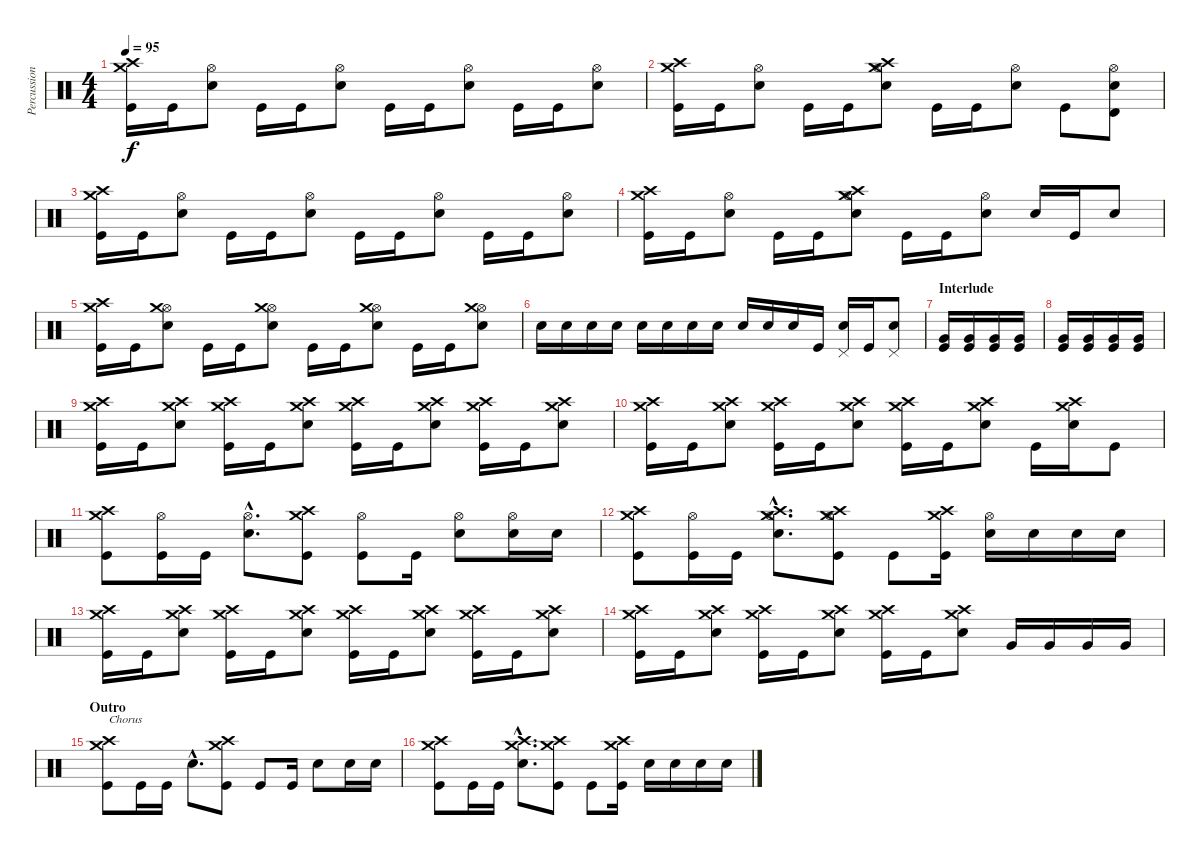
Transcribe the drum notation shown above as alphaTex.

\track ("Percussion" "Percussion") {instrument percussion}
\staff {score}
\articulation defaults
\ts (4 4)
\tempo 95
\clef neutral
\ks c
("Crash medium (hit)" "Crash high (hit)" "Kick (hit)").16{dy f} "Kick (hit)".16 ("Hi-Hat (open)" "Electric Snare (hit)").8 "Kick (hit)".16 "Kick (hit)".16 ("Hi-Hat (open)" "Electric Snare (hit)").8 "Kick (hit)".16 "Kick (hit)".16 ("Hi-Hat (open)" "Electric Snare (hit)").8 "Kick (hit)".16 "Kick (hit)".16 ("Electric Snare (hit)" "Hi-Hat (open)").8 |
("Crash medium (hit)" "Crash high (hit)" "Kick (hit)").16 "Kick (hit)".16 ("Hi-Hat (open)" "Electric Snare (hit)").8 "Kick (hit)".16 "Kick (hit)".16 ("Hi-Hat (open)" "Electric Snare (hit)" "Crash medium (hit)" "Crash high (hit)").8 "Kick (hit)".16 "Kick (hit)".16 ("Hi-Hat (open)" "Electric Snare (hit)").8 "Kick (hit)".8 ("Electric Snare (hit)" "Hi-Hat (open)" "Timbale high (hit)").8 |
("Crash medium (hit)" "Crash high (hit)" "Kick (hit)").16 "Kick (hit)".16 ("Hi-Hat (open)" "Electric Snare (hit)").8 "Kick (hit)".16 "Kick (hit)".16 ("Hi-Hat (open)" "Electric Snare (hit)").8 "Kick (hit)".16 "Kick (hit)".16 ("Hi-Hat (open)" "Electric Snare (hit)").8 "Kick (hit)".16 "Kick (hit)".16 ("Electric Snare (hit)" "Hi-Hat (open)").8 |
("Crash medium (hit)" "Crash high (hit)" "Kick (hit)").16 "Kick (hit)".16 ("Hi-Hat (open)" "Electric Snare (hit)").8 "Kick (hit)".16 "Kick (hit)".16 ("Hi-Hat (open)" "Electric Snare (hit)" "Crash medium (hit)" "Crash high (hit)").8 "Kick (hit)".16 "Kick (hit)".16 ("Hi-Hat (open)" "Electric Snare (hit)").8 "Electric Snare (hit)".16 "Kick (hit)".16 "Electric Snare (hit)".8 |
("Crash medium (hit)" "Crash high (hit)" "Kick (hit)").16 "Kick (hit)".16 ("Hi-Hat (open)" "Electric Snare (hit)" "Crash medium (hit)").8 "Kick (hit)".16 "Kick (hit)".16 ("Hi-Hat (open)" "Electric Snare (hit)" "Crash medium (hit)").8 "Kick (hit)".16 "Kick (hit)".16 ("Hi-Hat (open)" "Electric Snare (hit)" "Crash medium (hit)").8 "Kick (hit)".16 "Kick (hit)".16 ("Electric Snare (hit)" "Hi-Hat (open)" "Crash medium (hit)").8{volume 0} |
"Electric Snare (hit)".16{volume 16} "Electric Snare (hit)".16 "Electric Snare (hit)".16 "Electric Snare (hit)".16 "Electric Snare (hit)".16 "Electric Snare (hit)".16 "Electric Snare (hit)".16 "Electric Snare (hit)".16 "Electric Snare (hit)".16 "Electric Snare (hit)".16 "Electric Snare (hit)".16 "Kick (hit)".16 ("Pedal Hi-Hat (hit)" "Electric Snare (hit)").16 "Kick (hit)".16 ("Pedal Hi-Hat (hit)" "Electric Snare (hit)").8 |
\section ("" "Interlude")
("Very Low Tom (hit)" "Kick (hit)").16 ("Very Low Tom (hit)" "Kick (hit)").16 ("Very Low Tom (hit)" "Kick (hit)").16 ("Very Low Tom (hit)" "Kick (hit)").16 |
("Very Low Tom (hit)" "Kick (hit)").16 ("Very Low Tom (hit)" "Kick (hit)").16 ("Very Low Tom (hit)" "Kick (hit)").16 ("Very Low Tom (hit)" "Kick (hit)").16 |
("Crash medium (hit)" "Crash high (hit)" "Kick (hit)").16 "Kick (hit)".16 ("Crash high (hit)" "Electric Snare (hit)" "Crash medium (hit)").8 ("Crash high (hit)" "Crash medium (hit)" "Kick (hit)").16 "Kick (hit)".16 ("Crash high (hit)" "Electric Snare (hit)" "Crash medium (hit)").8 ("Crash high (hit)" "Crash medium (hit)" "Kick (hit)").16 "Kick (hit)".16 ("Crash high (hit)" "Electric Snare (hit)" "Crash medium (hit)").8 ("Crash high (hit)" "Crash medium (hit)" "Kick (hit)").16 "Kick (hit)".16 ("Electric Snare (hit)" "Crash medium (hit)" "Crash high (hit)").8 |
("Crash medium (hit)" "Crash high (hit)" "Kick (hit)").16 "Kick (hit)".16 ("Crash medium (hit)" "Electric Snare (hit)" "Crash high (hit)").8 ("Crash medium (hit)" "Crash high (hit)" "Kick (hit)").16 "Kick (hit)".16 ("Crash medium (hit)" "Electric Snare (hit)" "Crash high (hit)").8 ("Crash medium (hit)" "Crash high (hit)" "Kick (hit)").16 "Kick (hit)".16 ("Electric Snare (hit)" "Crash high (hit)" "Crash medium (hit)").8 "Kick (hit)".16 ("Electric Snare (hit)" "Crash high (hit)" "Crash medium (hit)").16 "Kick (hit)".8 |
("Crash medium (hit)" "Crash high (hit)" "Kick (hit)").8 ("Hi-Hat (open)" "Kick (hit)").16 "Kick (hit)".16 ("Hi-Hat (open)"{hac} "Electric Snare (hit)"{hac}).8{d} ("Crash high (hit)" "Crash medium (hit)" "Kick (hit)").8 ("Hi-Hat (open)" "Kick (hit)").8 "Kick (hit)".16 ("Hi-Hat (open)" "Electric Snare (hit)").8 ("Hi-Hat (open)" "Electric Snare (hit)").16 "Electric Snare (hit)".16 |
("Crash medium (hit)" "Crash high (hit)" "Kick (hit)").8 ("Hi-Hat (open)" "Kick (hit)").16 "Kick (hit)".16 ("Electric Snare (hit)"{hac} "Crash medium (hit)"{hac} "Crash high (hit)"{hac} "Hi-Hat (open)"{hac}).8{d} ("Crash high (hit)" "Crash medium (hit)" "Hi-Hat (open)" "Kick (hit)").8 "Kick (hit)".8 ("Crash medium (hit)" "Crash high (hit)" "Kick (hit)").16 ("Hi-Hat (open)" "Electric Snare (hit)").16 "Electric Snare (hit)".16 "Electric Snare (hit)".16 "Electric Snare (hit)".16 |
("Crash medium (hit)" "Crash high (hit)" "Kick (hit)").16 "Kick (hit)".16 ("Crash high (hit)" "Electric Snare (hit)" "Crash medium (hit)").8 ("Crash high (hit)" "Crash medium (hit)" "Kick (hit)").16 "Kick (hit)".16 ("Crash high (hit)" "Electric Snare (hit)" "Crash medium (hit)").8 ("Crash high (hit)" "Crash medium (hit)" "Kick (hit)").16 "Kick (hit)".16 ("Crash high (hit)" "Electric Snare (hit)" "Crash medium (hit)").8 ("Crash high (hit)" "Crash medium (hit)" "Kick (hit)").16 "Kick (hit)".16 ("Electric Snare (hit)" "Crash medium (hit)" "Crash high (hit)").8 |
("Crash medium (hit)" "Crash high (hit)" "Kick (hit)").16 "Kick (hit)".16 ("Crash medium (hit)" "Electric Snare (hit)" "Crash high (hit)").8 ("Crash medium (hit)" "Crash high (hit)" "Kick (hit)").16 "Kick (hit)".16 ("Crash high (hit)" "Electric Snare (hit)" "Crash medium (hit)").8 ("Crash high (hit)" "Crash medium (hit)" "Kick (hit)").16 "Kick (hit)".16 ("Crash high (hit)" "Electric Snare (hit)" "Crash medium (hit)").8 "Very Low Tom (hit)".16 "Very Low Tom (hit)".16 "Very Low Tom (hit)".16 "Very Low Tom (hit)".16 |
\section ("" "Outro")
("Crash medium (hit)" "Crash high (hit)" "Kick (hit)").8{txt "Chorus"} "Kick (hit)".16 "Kick (hit)".16 "Electric Snare (hit)"{hac}.8{d} ("Crash high (hit)" "Crash medium (hit)" "Kick (hit)").8 "Kick (hit)".8 "Kick (hit)".16 "Electric Snare (hit)".8 "Electric Snare (hit)".16 "Electric Snare (hit)".16 |
("Crash medium (hit)" "Crash high (hit)" "Kick (hit)").8 "Kick (hit)".16 "Kick (hit)".16 ("Electric Snare (hit)"{hac} "Crash medium (hit)"{hac} "Crash high (hit)"{hac}).8{d} ("Crash high (hit)" "Crash medium (hit)" "Kick (hit)").8 "Kick (hit)".8 ("Crash medium (hit)" "Crash high (hit)" "Kick (hit)").16 "Electric Snare (hit)".16 "Electric Snare (hit)".16 "Electric Snare (hit)".16 "Electric Snare (hit)".16
